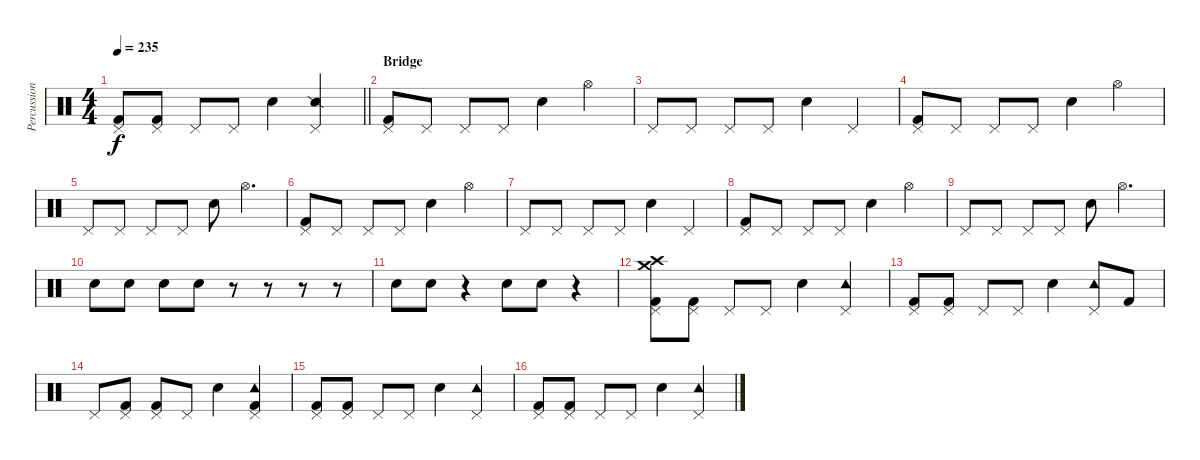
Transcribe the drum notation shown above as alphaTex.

\track ("Percussion" "Percussion") {instrument percussion}
\staff {score}
\articulation defaults
\ts (4 4)
\tempo 235
\clef neutral
\barLineRight lightlight
\ks c
("Kick (hit) 2" "Pedal Hi-Hat (hit)").8{dy f} ("Kick (hit) 2" "Pedal Hi-Hat (hit)").8 "Pedal Hi-Hat (hit)".8 "Pedal Hi-Hat (hit)".8 "Snare (hit) 2".4 ("Pedal Hi-Hat (hit)" "Snare (side stick) 2").4 |
\section ("" "Bridge")
("Kick (hit) 2" "Pedal Hi-Hat (hit)").8 "Pedal Hi-Hat (hit)".8 "Pedal Hi-Hat (hit)".8 "Pedal Hi-Hat (hit)".8 "Snare (hit) 2".4 "Hi-Hat (open)".4 |
"Pedal Hi-Hat (hit)".8 "Pedal Hi-Hat (hit)".8 "Pedal Hi-Hat (hit)".8 "Pedal Hi-Hat (hit)".8 "Snare (hit) 2".4 "Pedal Hi-Hat (hit)".4 |
("Kick (hit) 2" "Pedal Hi-Hat (hit)").8 "Pedal Hi-Hat (hit)".8 "Pedal Hi-Hat (hit)".8 "Pedal Hi-Hat (hit)".8 "Snare (hit) 2".4 "Hi-Hat (open)".4 |
"Pedal Hi-Hat (hit)".8 "Pedal Hi-Hat (hit)".8 "Pedal Hi-Hat (hit)".8 "Pedal Hi-Hat (hit)".8 "Snare (hit) 2".8 "Hi-Hat (open)".4{d} |
("Kick (hit) 2" "Pedal Hi-Hat (hit)").8 "Pedal Hi-Hat (hit)".8 "Pedal Hi-Hat (hit)".8 "Pedal Hi-Hat (hit)".8 "Snare (hit) 2".4 "Hi-Hat (open)".4 |
"Pedal Hi-Hat (hit)".8 "Pedal Hi-Hat (hit)".8 "Pedal Hi-Hat (hit)".8 "Pedal Hi-Hat (hit)".8 "Snare (hit) 2".4 "Pedal Hi-Hat (hit)".4 |
("Kick (hit) 2" "Pedal Hi-Hat (hit)").8 "Pedal Hi-Hat (hit)".8 "Pedal Hi-Hat (hit)".8 "Pedal Hi-Hat (hit)".8 "Snare (hit) 2".4 "Hi-Hat (open)".4 |
"Pedal Hi-Hat (hit)".8 "Pedal Hi-Hat (hit)".8 "Pedal Hi-Hat (hit)".8 "Pedal Hi-Hat (hit)".8 "Snare (hit) 2".8 "Hi-Hat (open)".4{d} |
"Snare (hit) 2".8 "Snare (hit) 2".8 "Snare (hit) 2".8 "Snare (hit) 2".8 r.8 r.8 r.8 r.8 |
"Snare (hit) 2".8 "Snare (hit) 2".8 r.4 "Snare (hit) 2".8 "Snare (hit) 2".8 r.4 |
("Kick (hit) 2" "Pedal Hi-Hat (hit)" "Crash medium (hit)" "Crash high (hit)").8 ("Kick (hit) 2" "Pedal Hi-Hat (hit)").8 "Pedal Hi-Hat (hit)".8 "Pedal Hi-Hat (hit)".8 "Snare (hit) 2".4 ("Pedal Hi-Hat (hit)" "Tambourine (hit)").4 |
("Kick (hit) 2" "Pedal Hi-Hat (hit)").8 ("Kick (hit) 2" "Pedal Hi-Hat (hit)").8 "Pedal Hi-Hat (hit)".8 "Pedal Hi-Hat (hit)".8 "Snare (hit) 2".4 ("Pedal Hi-Hat (hit)" "Tambourine (hit)").8 "Kick (hit) 2".8 |
"Pedal Hi-Hat (hit)".8 ("Pedal Hi-Hat (hit)" "Kick (hit) 2").8 ("Pedal Hi-Hat (hit)" "Kick (hit) 2").8 "Pedal Hi-Hat (hit)".8 "Snare (hit) 2".4 ("Kick (hit) 2" "Pedal Hi-Hat (hit)" "Tambourine (hit)").4 |
("Kick (hit) 2" "Pedal Hi-Hat (hit)").8 ("Kick (hit) 2" "Pedal Hi-Hat (hit)").8 "Pedal Hi-Hat (hit)".8 "Pedal Hi-Hat (hit)".8 "Snare (hit) 2".4 ("Pedal Hi-Hat (hit)" "Tambourine (hit)").4 |
("Kick (hit) 2" "Pedal Hi-Hat (hit)").8 ("Kick (hit) 2" "Pedal Hi-Hat (hit)").8 "Pedal Hi-Hat (hit)".8 "Pedal Hi-Hat (hit)".8 "Snare (hit) 2".4 ("Pedal Hi-Hat (hit)" "Tambourine (hit)").4
